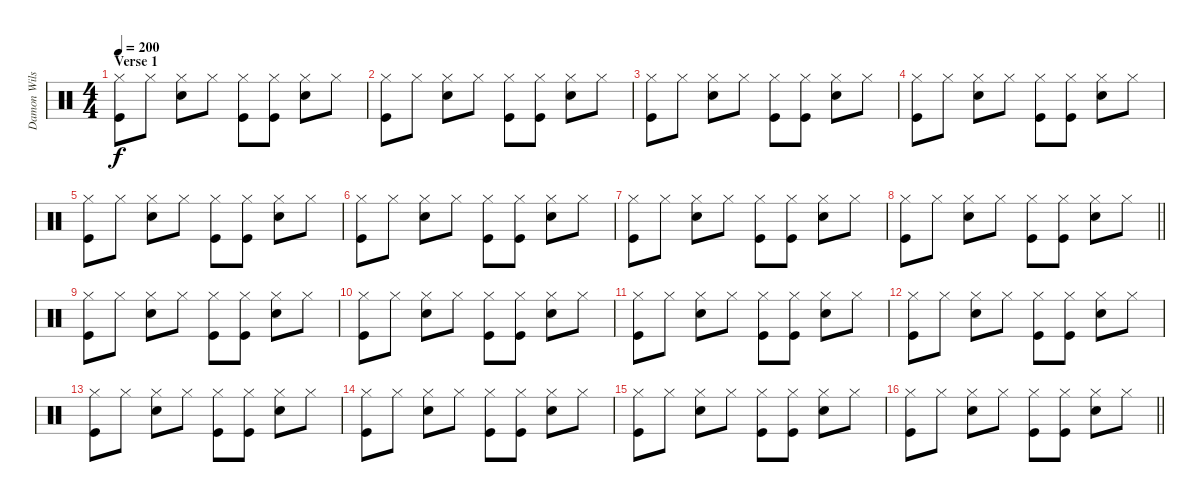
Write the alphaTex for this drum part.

\track ("Damon Wilson" "Damon Wils") {instrument percussion}
\staff {score}
\articulation defaults
\ts (4 4)
\section ("" "Verse 1")
\tempo 200
\clef neutral
\ks c
("Hi-Hat (closed)" "Kick (hit)").8{dy f} "Hi-Hat (closed)".8 ("Hi-Hat (closed)" "Snare (hit) 2").8 "Hi-Hat (closed)".8 ("Hi-Hat (closed)" "Kick (hit)").8 ("Hi-Hat (closed)" "Kick (hit)").8 ("Hi-Hat (closed)" "Snare (hit) 2").8 "Hi-Hat (closed)".8 |
("Hi-Hat (closed)" "Kick (hit)").8 "Hi-Hat (closed)".8 ("Hi-Hat (closed)" "Snare (hit) 2").8 "Hi-Hat (closed)".8 ("Hi-Hat (closed)" "Kick (hit)").8 ("Hi-Hat (closed)" "Kick (hit)").8 ("Hi-Hat (closed)" "Snare (hit) 2").8 "Hi-Hat (closed)".8 |
("Hi-Hat (closed)" "Kick (hit)").8 "Hi-Hat (closed)".8 ("Hi-Hat (closed)" "Snare (hit) 2").8 "Hi-Hat (closed)".8 ("Hi-Hat (closed)" "Kick (hit)").8 ("Hi-Hat (closed)" "Kick (hit)").8 ("Hi-Hat (closed)" "Snare (hit) 2").8 "Hi-Hat (closed)".8 |
("Hi-Hat (closed)" "Kick (hit)").8 "Hi-Hat (closed)".8 ("Hi-Hat (closed)" "Snare (hit) 2").8 "Hi-Hat (closed)".8 ("Hi-Hat (closed)" "Kick (hit)").8 ("Hi-Hat (closed)" "Kick (hit)").8 ("Hi-Hat (closed)" "Snare (hit) 2").8 "Hi-Hat (closed)".8 |
("Hi-Hat (closed)" "Kick (hit)").8 "Hi-Hat (closed)".8 ("Hi-Hat (closed)" "Snare (hit) 2").8 "Hi-Hat (closed)".8 ("Hi-Hat (closed)" "Kick (hit)").8 ("Hi-Hat (closed)" "Kick (hit)").8 ("Hi-Hat (closed)" "Snare (hit) 2").8 "Hi-Hat (closed)".8 |
("Hi-Hat (closed)" "Kick (hit)").8 "Hi-Hat (closed)".8 ("Hi-Hat (closed)" "Snare (hit) 2").8 "Hi-Hat (closed)".8 ("Hi-Hat (closed)" "Kick (hit)").8 ("Hi-Hat (closed)" "Kick (hit)").8 ("Hi-Hat (closed)" "Snare (hit) 2").8 "Hi-Hat (closed)".8 |
("Hi-Hat (closed)" "Kick (hit)").8 "Hi-Hat (closed)".8 ("Hi-Hat (closed)" "Snare (hit) 2").8 "Hi-Hat (closed)".8 ("Hi-Hat (closed)" "Kick (hit)").8 ("Hi-Hat (closed)" "Kick (hit)").8 ("Hi-Hat (closed)" "Snare (hit) 2").8 "Hi-Hat (closed)".8 |
\barLineRight lightlight
("Hi-Hat (closed)" "Kick (hit)").8 "Hi-Hat (closed)".8 ("Hi-Hat (closed)" "Snare (hit) 2").8 "Hi-Hat (closed)".8 ("Hi-Hat (closed)" "Kick (hit)").8 ("Hi-Hat (closed)" "Kick (hit)").8 ("Hi-Hat (closed)" "Snare (hit) 2").8 "Hi-Hat (closed)".8 |
("Hi-Hat (closed)" "Kick (hit)").8 "Hi-Hat (closed)".8 ("Hi-Hat (closed)" "Snare (hit) 2").8 "Hi-Hat (closed)".8 ("Hi-Hat (closed)" "Kick (hit)").8 ("Hi-Hat (closed)" "Kick (hit)").8 ("Hi-Hat (closed)" "Snare (hit) 2").8 "Hi-Hat (closed)".8 |
("Hi-Hat (closed)" "Kick (hit)").8 "Hi-Hat (closed)".8 ("Hi-Hat (closed)" "Snare (hit) 2").8 "Hi-Hat (closed)".8 ("Hi-Hat (closed)" "Kick (hit)").8 ("Hi-Hat (closed)" "Kick (hit)").8 ("Hi-Hat (closed)" "Snare (hit) 2").8 "Hi-Hat (closed)".8 |
("Hi-Hat (closed)" "Kick (hit)").8 "Hi-Hat (closed)".8 ("Hi-Hat (closed)" "Snare (hit) 2").8 "Hi-Hat (closed)".8 ("Hi-Hat (closed)" "Kick (hit)").8 ("Hi-Hat (closed)" "Kick (hit)").8 ("Hi-Hat (closed)" "Snare (hit) 2").8 "Hi-Hat (closed)".8 |
("Hi-Hat (closed)" "Kick (hit)").8 "Hi-Hat (closed)".8 ("Hi-Hat (closed)" "Snare (hit) 2").8 "Hi-Hat (closed)".8 ("Hi-Hat (closed)" "Kick (hit)").8 ("Hi-Hat (closed)" "Kick (hit)").8 ("Hi-Hat (closed)" "Snare (hit) 2").8 "Hi-Hat (closed)".8 |
("Hi-Hat (closed)" "Kick (hit)").8 "Hi-Hat (closed)".8 ("Hi-Hat (closed)" "Snare (hit) 2").8 "Hi-Hat (closed)".8 ("Hi-Hat (closed)" "Kick (hit)").8 ("Hi-Hat (closed)" "Kick (hit)").8 ("Hi-Hat (closed)" "Snare (hit) 2").8 "Hi-Hat (closed)".8 |
("Hi-Hat (closed)" "Kick (hit)").8 "Hi-Hat (closed)".8 ("Hi-Hat (closed)" "Snare (hit) 2").8 "Hi-Hat (closed)".8 ("Hi-Hat (closed)" "Kick (hit)").8 ("Hi-Hat (closed)" "Kick (hit)").8 ("Hi-Hat (closed)" "Snare (hit) 2").8 "Hi-Hat (closed)".8 |
("Hi-Hat (closed)" "Kick (hit)").8 "Hi-Hat (closed)".8 ("Hi-Hat (closed)" "Snare (hit) 2").8 "Hi-Hat (closed)".8 ("Hi-Hat (closed)" "Kick (hit)").8 ("Hi-Hat (closed)" "Kick (hit)").8 ("Hi-Hat (closed)" "Snare (hit) 2").8 "Hi-Hat (closed)".8 |
\barLineRight lightlight
("Hi-Hat (closed)" "Kick (hit)").8 "Hi-Hat (closed)".8 ("Hi-Hat (closed)" "Snare (hit) 2").8 "Hi-Hat (closed)".8 ("Hi-Hat (closed)" "Kick (hit)").8 ("Hi-Hat (closed)" "Kick (hit)").8 ("Hi-Hat (closed)" "Snare (hit) 2").8 "Hi-Hat (closed)".8
